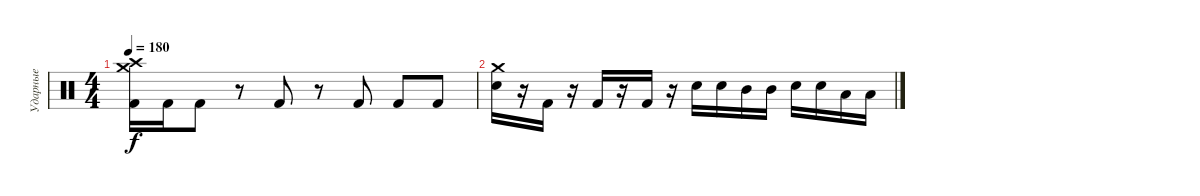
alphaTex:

\track ("Ударные" "Ударные") {instrument percussion}
\staff {score}
\articulation defaults
\ts (4 4)
\tempo 180
\clef neutral
\ks c
("Crash high (hit)" "Crash medium (hit)" "Kick (hit) 2").16{dy f} "Kick (hit) 2".16 "Kick (hit) 2".8 r.8 "Kick (hit) 2".8 r.8 "Kick (hit) 2".8 "Kick (hit) 2".8 "Kick (hit) 2".8 |
("Crash medium (hit)" "Electric Snare (hit)").16 r.16 "Kick (hit) 2".16 r.16 "Kick (hit) 2".16 r.16 "Kick (hit) 2".16 r.16 "Electric Snare (hit)".16 "Electric Snare (hit)".16 "Mid Tom (hit)".16 "Mid Tom (hit)".16 "Electric Snare (hit)".16 "Electric Snare (hit)".16 "Low Tom (hit)".16 "Low Tom (hit)".16
